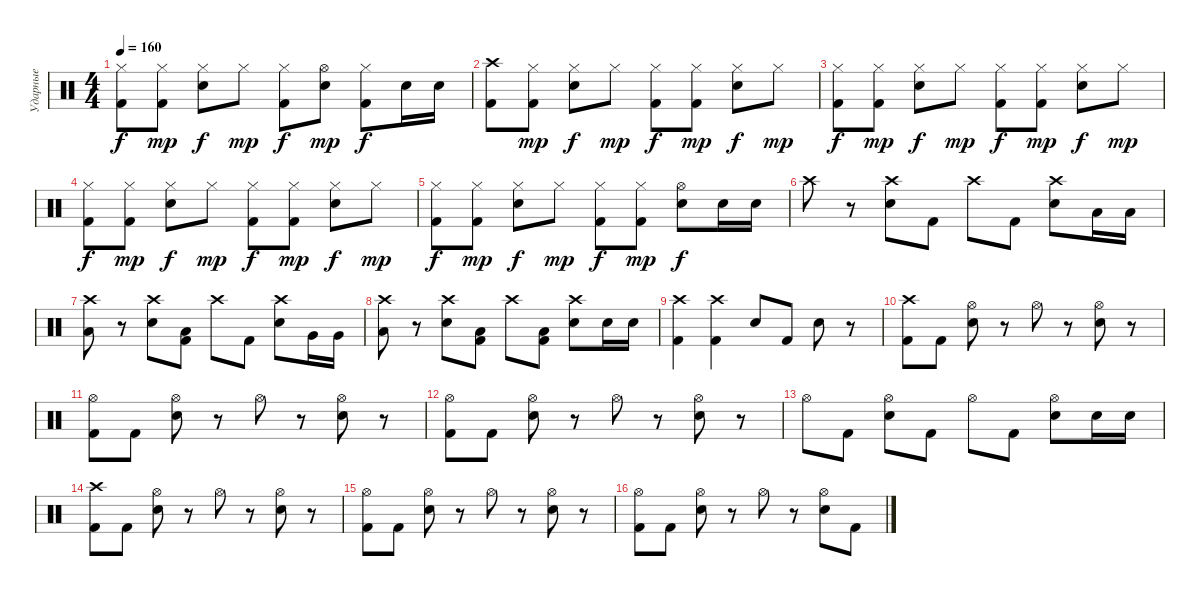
\track ("Ударные" "Ударные") {instrument percussion}
\staff {score}
\articulation defaults
\ts (4 4)
\tempo 160
\clef neutral
\ks c
("Hi-Hat (closed)" "Kick (hit) 2").8{dy f} ("Hi-Hat (closed)" "Kick (hit) 2").8{dy mp} ("Hi-Hat (closed)" "Snare (hit) 2").8{dy f} "Hi-Hat (closed)".8{dy mp} ("Hi-Hat (closed)" "Kick (hit) 2").8{dy f} ("Hi-Hat (open)" "Snare (hit) 2").8{dy mp} ("Hi-Hat (closed)" "Kick (hit) 2").8{dy f} "Snare (hit) 2".16 "Snare (hit) 2".16 |
("Crash high (hit)" "Kick (hit) 2").8 ("Hi-Hat (closed)" "Kick (hit) 2").8{dy mp} ("Hi-Hat (closed)" "Snare (hit) 2").8{dy f} "Hi-Hat (closed)".8{dy mp} ("Hi-Hat (closed)" "Kick (hit) 2").8{dy f} ("Hi-Hat (closed)" "Kick (hit) 2").8{dy mp} ("Hi-Hat (closed)" "Snare (hit) 2").8{dy f} "Hi-Hat (closed)".8{dy mp} |
("Hi-Hat (closed)" "Kick (hit) 2").8{dy f} ("Hi-Hat (closed)" "Kick (hit) 2").8{dy mp} ("Hi-Hat (closed)" "Snare (hit) 2").8{dy f} "Hi-Hat (closed)".8{dy mp} ("Hi-Hat (closed)" "Kick (hit) 2").8{dy f} ("Hi-Hat (closed)" "Kick (hit) 2").8{dy mp} ("Hi-Hat (closed)" "Snare (hit) 2").8{dy f} "Hi-Hat (closed)".8{dy mp} |
("Hi-Hat (closed)" "Kick (hit) 2").8{dy f} ("Hi-Hat (closed)" "Kick (hit) 2").8{dy mp} ("Hi-Hat (closed)" "Snare (hit) 2").8{dy f} "Hi-Hat (closed)".8{dy mp} ("Hi-Hat (closed)" "Kick (hit) 2").8{dy f} ("Hi-Hat (closed)" "Kick (hit) 2").8{dy mp} ("Hi-Hat (closed)" "Snare (hit) 2").8{dy f} "Hi-Hat (closed)".8{dy mp} |
("Hi-Hat (closed)" "Kick (hit) 2").8{dy f} ("Hi-Hat (closed)" "Kick (hit) 2").8{dy mp} ("Hi-Hat (closed)" "Snare (hit) 2").8{dy f} "Hi-Hat (closed)".8{dy mp} ("Hi-Hat (closed)" "Kick (hit) 2").8{dy f} ("Hi-Hat (closed)" "Kick (hit) 2").8{dy mp} ("Hi-Hat (open)" "Snare (hit) 2").8{dy f} "Snare (hit) 2".16 "Snare (hit) 2".16 |
"Crash high (hit)".8 r.8 ("Crash high (hit)" "Snare (hit) 2").8 "Kick (hit) 2".8 "Crash high (hit)".8 "Kick (hit) 2".8 ("Crash high (hit)" "Snare (hit) 2").8 "Low Tom (hit)".16 "Low Tom (hit)".16 |
("Crash high (hit)" "Low Tom (hit)").8 r.8 ("Crash high (hit)" "Snare (hit) 2").8 ("Kick (hit) 2" "Low Tom (hit)").8 "Crash high (hit)".8 "Kick (hit) 2".8 ("Crash high (hit)" "Snare (hit) 2").8 "Very Low Tom (hit)".16 "Very Low Tom (hit)".16 |
("Crash high (hit)" "Low Tom (hit)").8 r.8 ("Crash high (hit)" "Snare (hit) 2").8 ("Kick (hit) 2" "Low Tom (hit)").8 "Crash high (hit)".8 ("Kick (hit) 2" "Low Tom (hit)").8 ("Crash high (hit)" "Snare (hit) 2").8 "Snare (hit) 2".16 "Snare (hit) 2".16 |
("Crash high (hit)" "Kick (hit) 2").4 ("Crash high (hit)" "Kick (hit) 2").4 "Snare (hit) 2".8 "Kick (hit) 2".8 "Snare (hit) 2".8 r.8 |
("Crash high (hit)" "Kick (hit) 2").8 "Kick (hit) 2".8 ("Hi-Hat (open)" "Snare (hit) 2").8 r.8 "Hi-Hat (open)".8 r.8 ("Hi-Hat (open)" "Snare (hit) 2").8 r.8 |
("Hi-Hat (open)" "Kick (hit) 2").8 "Kick (hit) 2".8 ("Hi-Hat (open)" "Snare (hit) 2").8 r.8 "Hi-Hat (open)".8 r.8 ("Hi-Hat (open)" "Snare (hit) 2").8 r.8 |
("Hi-Hat (open)" "Kick (hit) 2").8 "Kick (hit) 2".8 ("Hi-Hat (open)" "Snare (hit) 2").8 r.8 "Hi-Hat (open)".8 r.8 ("Hi-Hat (open)" "Snare (hit) 2").8 r.8 |
"Hi-Hat (open)".8 "Kick (hit) 2".8 ("Hi-Hat (open)" "Snare (hit) 2").8 "Kick (hit) 2".8 "Hi-Hat (open)".8 "Kick (hit) 2".8 ("Hi-Hat (open)" "Snare (hit) 2").8 "Snare (hit) 2".16 "Snare (hit) 2".16 |
("Crash high (hit)" "Kick (hit) 2").8 "Kick (hit) 2".8 ("Hi-Hat (open)" "Snare (hit) 2").8 r.8 "Hi-Hat (open)".8 r.8 ("Hi-Hat (open)" "Snare (hit) 2").8 r.8 |
("Hi-Hat (open)" "Kick (hit) 2").8 "Kick (hit) 2".8 ("Hi-Hat (open)" "Snare (hit) 2").8 r.8 "Hi-Hat (open)".8 r.8 ("Hi-Hat (open)" "Snare (hit) 2").8 r.8 |
("Hi-Hat (open)" "Kick (hit) 2").8 "Kick (hit) 2".8 ("Hi-Hat (open)" "Snare (hit) 2").8 r.8 "Hi-Hat (open)".8 r.8 ("Hi-Hat (open)" "Snare (hit) 2").8 "Kick (hit) 2".8
